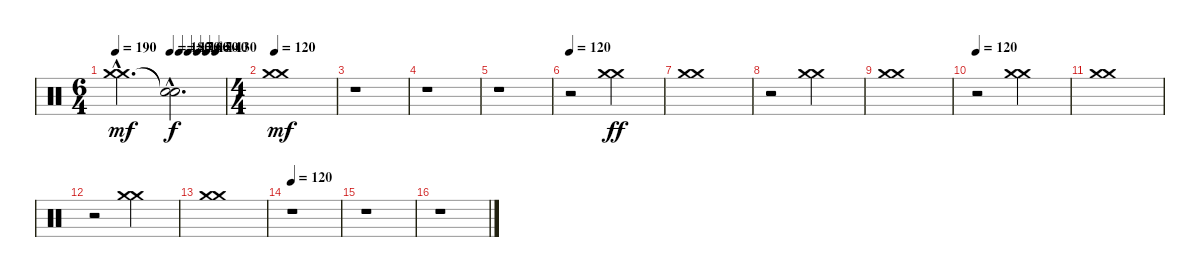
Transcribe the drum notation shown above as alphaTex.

\track "" {instrument percussion}
\staff {score}
\articulation defaults
\ts (6 4)
\tempo 190
\tempo (180 0.5)
\tempo (170 0.5833333333333334)
\tempo (160 0.6666666666666666)
\tempo (150 0.75)
\tempo (140 0.8333333333333334)
\tempo (130 0.9166666666666666)
\clef neutral
\ks c
("Crash medium (hit)"{hac} "Crash medium (hit)"{hac}).2{d dy mf} ("Snare (hit)"{hac t} "Snare (hit)"{hac t}).2{d dy f} |
\ts (4 4)
\tempo 120
("Crash medium (hit)" "Crash medium (hit)").1{dy mf} |
r.1 |
r.1 |
r.1 |
\tempo 120
r.2 ("Crash medium (hit)" "Crash medium (hit)").2{dy ff} |
("Crash medium (hit)" "Crash medium (hit)").1 |
r.2 ("Crash medium (hit)" "Crash medium (hit)").2 |
("Crash medium (hit)" "Crash medium (hit)").1 |
\tempo 120
r.2 ("Crash medium (hit)" "Crash medium (hit)").2 |
("Crash medium (hit)" "Crash medium (hit)").1 |
r.2 ("Crash medium (hit)" "Crash medium (hit)").2 |
("Crash medium (hit)" "Crash medium (hit)").1 |
\tempo 120
r.1 |
r.1 |
r.1
